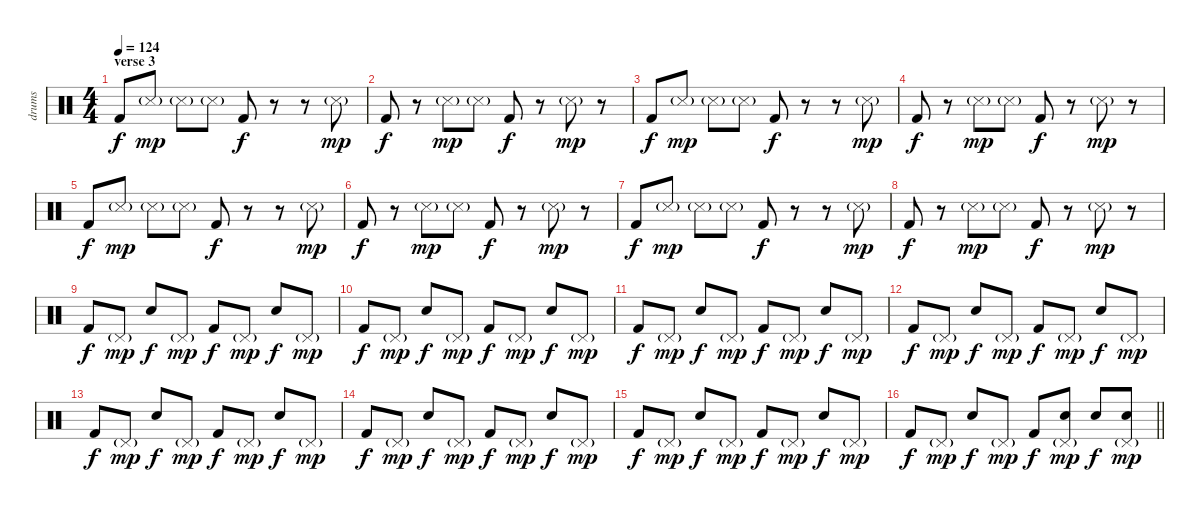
\track ("drums" "drums") {instrument percussion}
\staff {score}
\articulation defaults
\ts (4 4)
\section ("" "verse 3")
\tempo 124
\clef neutral
\ks c "Kick (hit) 2".8{dy f} "Snare (side stick) 3"{g}.8{dy mp} "Snare (side stick) 3"{g}.8 "Snare (side stick) 3"{g}.8 "Kick (hit) 2".8{dy f}
r.8 r.8 "Snare (side stick) 3"{g}.8{dy mp} |
"Kick (hit) 2".8{dy f} r.8 "Snare (side stick) 3"{g}.8{dy mp} "Snare (side stick) 3"{g}.8 "Kick (hit) 2".8{dy f} r.8 "Snare (side stick) 3"{g}.8{dy mp} r.8 |
"Kick (hit) 2".8{dy f} "Snare (side stick) 3"{g}.8{dy mp} "Snare (side stick) 3"{g}.8 "Snare (side stick) 3"{g}.8 "Kick (hit) 2".8{dy f} r.8 r.8 "Snare (side stick) 3"{g}.8{dy mp} |
"Kick (hit) 2".8{dy f} r.8 "Snare (side stick) 3"{g}.8{dy mp} "Snare (side stick) 3"{g}.8 "Kick (hit) 2".8{dy f} r.8 "Snare (side stick) 3"{g}.8{dy mp} r.8 |
"Kick (hit) 2".8{dy f} "Snare (side stick) 3"{g}.8{dy mp} "Snare (side stick) 3"{g}.8 "Snare (side stick) 3"{g}.8 "Kick (hit) 2".8{dy f} r.8 r.8 "Snare (side stick) 3"{g}.8{dy mp} |
"Kick (hit) 2".8{dy f} r.8 "Snare (side stick) 3"{g}.8{dy mp} "Snare (side stick) 3"{g}.8 "Kick (hit) 2".8{dy f} r.8 "Snare (side stick) 3"{g}.8{dy mp} r.8 |
"Kick (hit) 2".8{dy f} "Snare (side stick) 3"{g}.8{dy mp} "Snare (side stick) 3"{g}.8 "Snare (side stick) 3"{g}.8 "Kick (hit) 2".8{dy f} r.8 r.8 "Snare (side stick) 3"{g}.8{dy mp} |
"Kick (hit) 2".8{dy f} r.8 "Snare (side stick) 3"{g}.8{dy mp} "Snare (side stick) 3"{g}.8 "Kick (hit) 2".8{dy f} r.8 "Snare (side stick) 3"{g}.8{dy mp} r.8 |
"Kick (hit) 2".8{dy f} "Pedal Hi-Hat (hit)"{g}.8{dy mp} "Electric Snare (hit)".8{dy f} "Pedal Hi-Hat (hit)"{g}.8{dy mp} "Kick (hit) 2".8{dy f} "Pedal Hi-Hat (hit)"{g}.8{dy mp} "Electric Snare (hit)".8{dy f} "Pedal Hi-Hat (hit)"{g}.8{dy mp} |
"Kick (hit) 2".8{dy f} "Pedal Hi-Hat (hit)"{g}.8{dy mp} "Electric Snare (hit)".8{dy f} "Pedal Hi-Hat (hit)"{g}.8{dy mp} "Kick (hit) 2".8{dy f} "Pedal Hi-Hat (hit)"{g}.8{dy mp} "Electric Snare (hit)".8{dy f} "Pedal Hi-Hat (hit)"{g}.8{dy mp} |
"Kick (hit) 2".8{dy f} "Pedal Hi-Hat (hit)"{g}.8{dy mp} "Electric Snare (hit)".8{dy f} "Pedal Hi-Hat (hit)"{g}.8{dy mp} "Kick (hit) 2".8{dy f} "Pedal Hi-Hat (hit)"{g}.8{dy mp} "Electric Snare (hit)".8{dy f} "Pedal Hi-Hat (hit)"{g}.8{dy mp} |
"Kick (hit) 2".8{dy f} "Pedal Hi-Hat (hit)"{g}.8{dy mp} "Electric Snare (hit)".8{dy f} "Pedal Hi-Hat (hit)"{g}.8{dy mp} "Kick (hit) 2".8{dy f} "Pedal Hi-Hat (hit)"{g}.8{dy mp} "Electric Snare (hit)".8{dy f} "Pedal Hi-Hat (hit)"{g}.8{dy mp} |
"Kick (hit) 2".8{dy f} "Pedal Hi-Hat (hit)"{g}.8{dy mp} "Electric Snare (hit)".8{dy f} "Pedal Hi-Hat (hit)"{g}.8{dy mp} "Kick (hit) 2".8{dy f} "Pedal Hi-Hat (hit)"{g}.8{dy mp} "Electric Snare (hit)".8{dy f} "Pedal Hi-Hat (hit)"{g}.8{dy mp} |
"Kick (hit) 2".8{dy f} "Pedal Hi-Hat (hit)"{g}.8{dy mp} "Electric Snare (hit)".8{dy f} "Pedal Hi-Hat (hit)"{g}.8{dy mp} "Kick (hit) 2".8{dy f} "Pedal Hi-Hat (hit)"{g}.8{dy mp} "Electric Snare (hit)".8{dy f} "Pedal Hi-Hat (hit)"{g}.8{dy mp} |
"Kick (hit) 2".8{dy f} "Pedal Hi-Hat (hit)"{g}.8{dy mp} "Electric Snare (hit)".8{dy f} "Pedal Hi-Hat (hit)"{g}.8{dy mp} "Kick (hit) 2".8{dy f} "Pedal Hi-Hat (hit)"{g}.8{dy mp} "Electric Snare (hit)".8{dy f} "Pedal Hi-Hat (hit)"{g}.8{dy mp} |
\barLineRight lightlight "Kick (hit) 2".8{dy f} "Pedal Hi-Hat (hit)"{g}.8{dy mp} "Electric Snare (hit)".8{dy f} "Pedal Hi-Hat (hit)"{g}.8{dy mp} "Kick (hit) 2".8{dy f}
("Electric Snare (hit)" "Pedal Hi-Hat (hit)"{g}).8{dy mp} "Electric Snare (hit)".8{dy f} ("Electric Snare (hit)" "Pedal Hi-Hat (hit)"{g}).8{dy mp}
